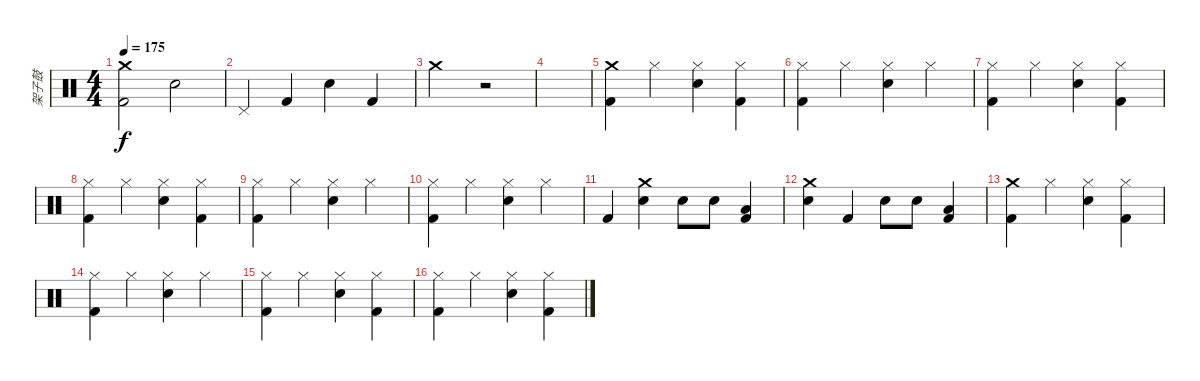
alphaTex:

\track ("架子鼓" "架子鼓") {instrument percussion}
\staff {score}
\articulation defaults
\ts (4 4)
\tempo 175
\clef neutral
\ks c
("Crash medium (hit)" "Kick (hit) 2").2{dy f} "Electric Snare (hit)".2 |
"Pedal Hi-Hat (hit)".4 "Kick (hit) 2".4 "Electric Snare (hit)".4 "Kick (hit) 2".4 |
"Crash medium (hit)".2 r.2 |
|
("Crash medium (hit)" "Kick (hit) 2").4 "Hi-Hat (closed)".4 ("Hi-Hat (closed)" "Electric Snare (hit)").4 ("Hi-Hat (closed)" "Kick (hit) 2").4 |
("Hi-Hat (closed)" "Kick (hit) 2").4 "Hi-Hat (closed)".4 ("Hi-Hat (closed)" "Electric Snare (hit)").4 "Hi-Hat (closed)".4 |
("Hi-Hat (closed)" "Kick (hit) 2").4 "Hi-Hat (closed)".4 ("Hi-Hat (closed)" "Electric Snare (hit)").4 ("Hi-Hat (closed)" "Kick (hit) 2").4 |
("Hi-Hat (closed)" "Kick (hit) 2").4 "Hi-Hat (closed)".4 ("Hi-Hat (closed)" "Electric Snare (hit)").4 ("Hi-Hat (closed)" "Kick (hit) 2").4 |
("Hi-Hat (closed)" "Kick (hit) 2").4 "Hi-Hat (closed)".4 ("Hi-Hat (closed)" "Electric Snare (hit)").4 "Hi-Hat (closed)".4 |
("Hi-Hat (closed)" "Kick (hit) 2").4 "Hi-Hat (closed)".4 ("Hi-Hat (closed)" "Electric Snare (hit)").4 "Hi-Hat (closed)".4 |
"Kick (hit) 2".4 ("Crash medium (hit)" "Electric Snare (hit)").4 "Electric Snare (hit)".8 "Electric Snare (hit)".8 ("Low Tom (hit)" "Kick (hit) 2").4 |
("Crash medium (hit)" "Electric Snare (hit)").4 "Kick (hit) 2".4 "Electric Snare (hit)".8 "Electric Snare (hit)".8 ("Low Tom (hit)" "Kick (hit) 2").4 |
("Crash medium (hit)" "Kick (hit) 2").4 "Hi-Hat (closed)".4 ("Hi-Hat (closed)" "Electric Snare (hit)").4 ("Hi-Hat (closed)" "Kick (hit) 2").4 |
("Hi-Hat (closed)" "Kick (hit) 2").4 "Hi-Hat (closed)".4 ("Hi-Hat (closed)" "Electric Snare (hit)").4 "Hi-Hat (closed)".4 |
("Hi-Hat (closed)" "Kick (hit) 2").4 "Hi-Hat (closed)".4 ("Hi-Hat (closed)" "Electric Snare (hit)").4 ("Hi-Hat (closed)" "Kick (hit) 2").4 |
("Hi-Hat (closed)" "Kick (hit) 2").4 "Hi-Hat (closed)".4 ("Hi-Hat (closed)" "Electric Snare (hit)").4 ("Hi-Hat (closed)" "Kick (hit) 2").4
